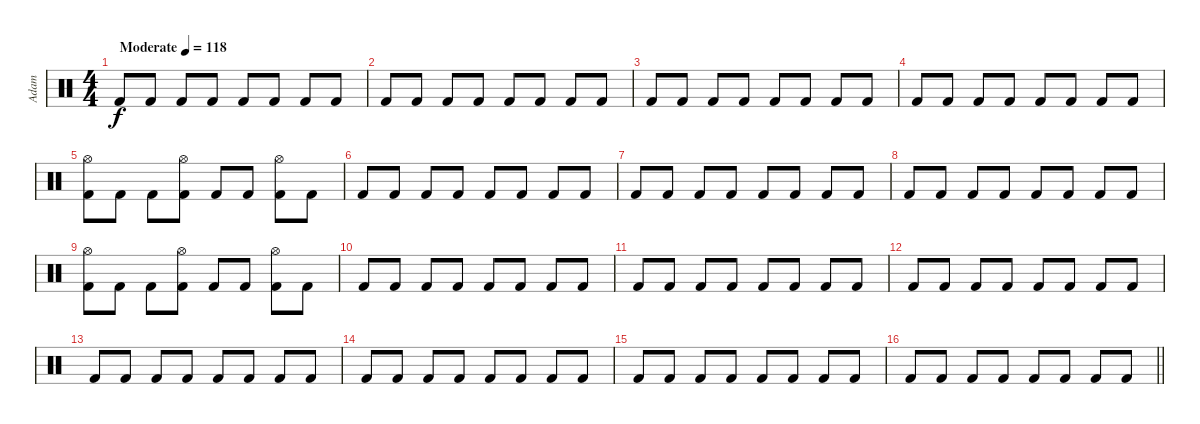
\track ("Adam" "Adam") {instrument percussion}
\staff {score}
\articulation defaults
\ts (4 4)
\tempo (118 "Moderate")
\clef neutral
\ks c "Kick (hit) 2".8{dy f} "Kick (hit) 2".8 "Kick (hit) 2".8 "Kick (hit) 2".8 "Kick (hit) 2".8 "Kick (hit) 2".8 "Kick (hit) 2".8 "Kick (hit) 2".8
|
"Kick (hit) 2".8 "Kick (hit) 2".8 "Kick (hit) 2".8 "Kick (hit) 2".8 "Kick (hit) 2".8 "Kick (hit) 2".8 "Kick (hit) 2".8 "Kick (hit) 2".8 |
"Kick (hit) 2".8 "Kick (hit) 2".8 "Kick (hit) 2".8 "Kick (hit) 2".8 "Kick (hit) 2".8 "Kick (hit) 2".8 "Kick (hit) 2".8 "Kick (hit) 2".8 |
"Kick (hit) 2".8 "Kick (hit) 2".8 "Kick (hit) 2".8 "Kick (hit) 2".8 "Kick (hit) 2".8 "Kick (hit) 2".8 "Kick (hit) 2".8 "Kick (hit) 2".8 |
("Kick (hit) 2" "Hi-Hat (open)").8 "Kick (hit) 2".8 "Kick (hit) 2".8 ("Kick (hit) 2" "Hi-Hat (open)").8 "Kick (hit) 2".8 "Kick (hit) 2".8 ("Kick (hit) 2" "Hi-Hat (open)").8 "Kick (hit) 2".8 |
"Kick (hit) 2".8 "Kick (hit) 2".8 "Kick (hit) 2".8 "Kick (hit) 2".8 "Kick (hit) 2".8 "Kick (hit) 2".8 "Kick (hit) 2".8 "Kick (hit) 2".8 |
"Kick (hit) 2".8 "Kick (hit) 2".8 "Kick (hit) 2".8 "Kick (hit) 2".8 "Kick (hit) 2".8 "Kick (hit) 2".8 "Kick (hit) 2".8 "Kick (hit) 2".8 |
"Kick (hit) 2".8 "Kick (hit) 2".8 "Kick (hit) 2".8 "Kick (hit) 2".8 "Kick (hit) 2".8 "Kick (hit) 2".8 "Kick (hit) 2".8 "Kick (hit) 2".8 |
("Kick (hit) 2" "Hi-Hat (open)").8 "Kick (hit) 2".8 "Kick (hit) 2".8 ("Kick (hit) 2" "Hi-Hat (open)").8 "Kick (hit) 2".8 "Kick (hit) 2".8 ("Kick (hit) 2" "Hi-Hat (open)").8 "Kick (hit) 2".8 |
"Kick (hit) 2".8 "Kick (hit) 2".8 "Kick (hit) 2".8 "Kick (hit) 2".8 "Kick (hit) 2".8 "Kick (hit) 2".8 "Kick (hit) 2".8 "Kick (hit) 2".8 |
"Kick (hit) 2".8 "Kick (hit) 2".8 "Kick (hit) 2".8 "Kick (hit) 2".8 "Kick (hit) 2".8 "Kick (hit) 2".8 "Kick (hit) 2".8 "Kick (hit) 2".8 |
"Kick (hit) 2".8 "Kick (hit) 2".8 "Kick (hit) 2".8 "Kick (hit) 2".8 "Kick (hit) 2".8 "Kick (hit) 2".8 "Kick (hit) 2".8 "Kick (hit) 2".8 |
"Kick (hit) 2".8 "Kick (hit) 2".8 "Kick (hit) 2".8 "Kick (hit) 2".8 "Kick (hit) 2".8 "Kick (hit) 2".8 "Kick (hit) 2".8 "Kick (hit) 2".8 |
"Kick (hit) 2".8 "Kick (hit) 2".8 "Kick (hit) 2".8 "Kick (hit) 2".8 "Kick (hit) 2".8 "Kick (hit) 2".8 "Kick (hit) 2".8 "Kick (hit) 2".8 |
"Kick (hit) 2".8 "Kick (hit) 2".8 "Kick (hit) 2".8 "Kick (hit) 2".8 "Kick (hit) 2".8 "Kick (hit) 2".8 "Kick (hit) 2".8 "Kick (hit) 2".8 |
\barLineRight lightlight "Kick (hit) 2".8 "Kick (hit) 2".8 "Kick (hit) 2".8 "Kick (hit) 2".8 "Kick (hit) 2".8 "Kick (hit) 2".8 "Kick (hit) 2".8 "Kick (hit) 2".8
